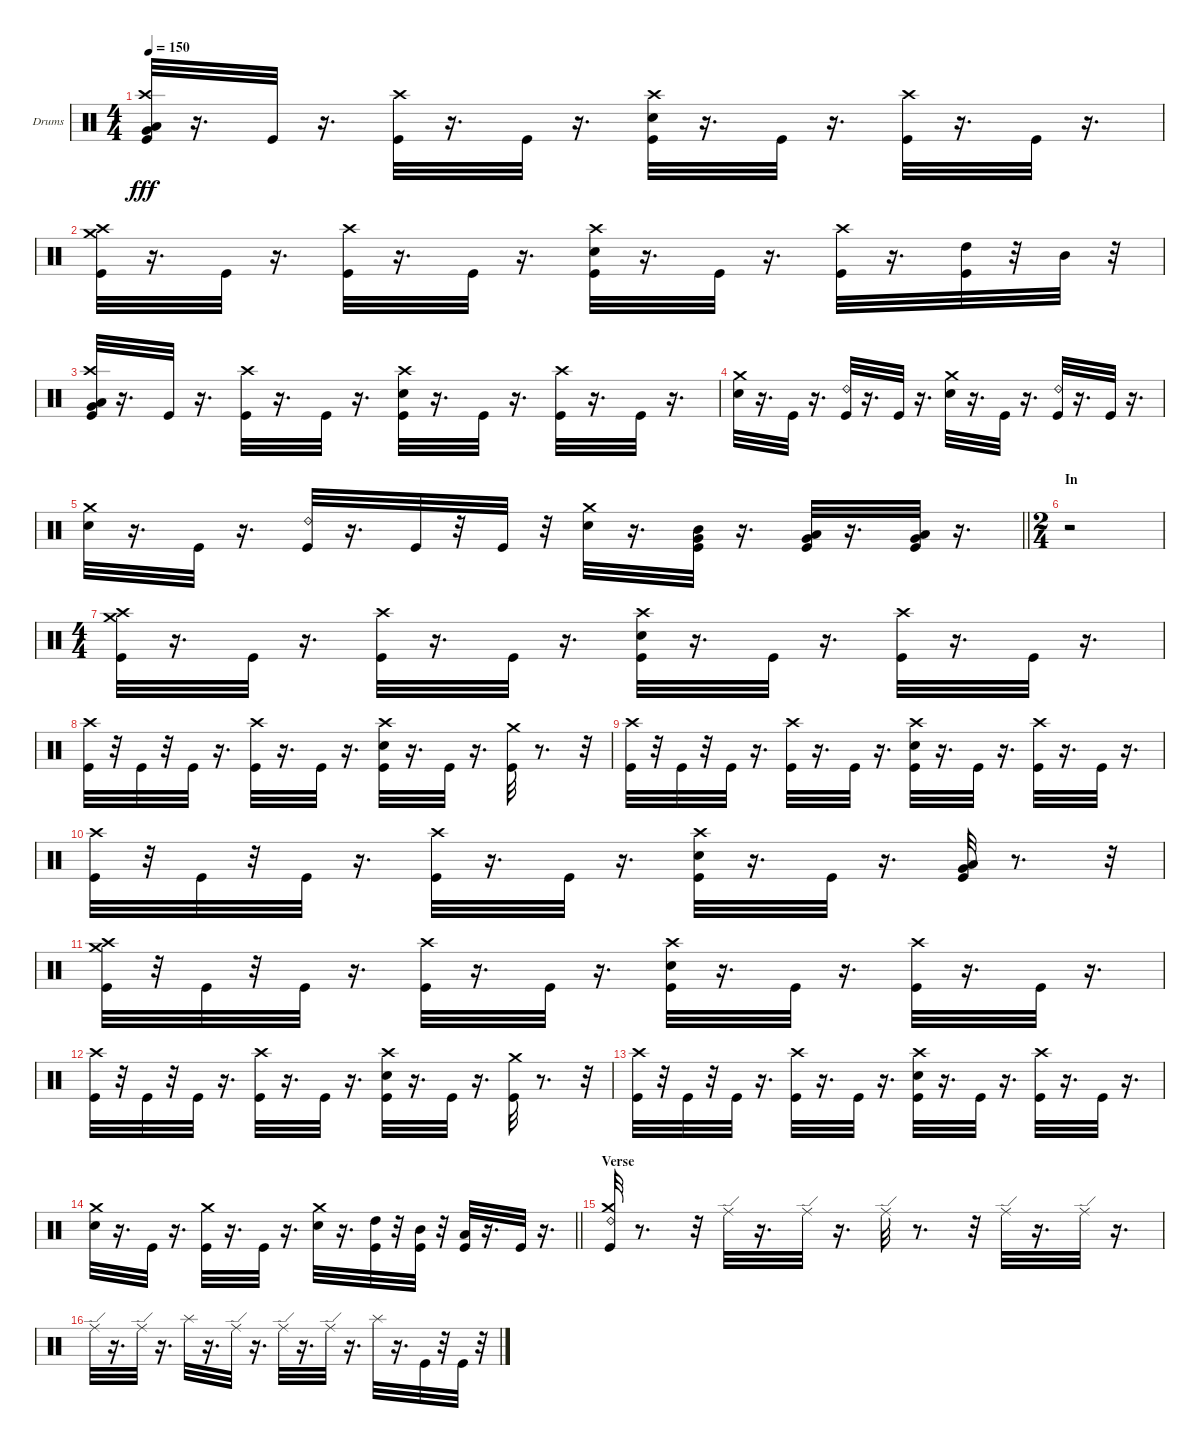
\bracketExtendMode groupsimilarinstruments
\firstSystemTrackNameOrientation horizontal
\otherSystemsTrackNameOrientation horizontal
\track ("Dave McClain" "Drums") {mute instrument percussion}
\staff {score}
\articulation defaults
\ts (4 4)
\tempo 150
\clef neutral
\ks c
("Low Tom (hit)" "Very Low Tom (hit)" "Crash high (hit)" "Kick (hit)").32{dy fff} r.16{d} "Kick (hit)".32 r.16{d} ("Crash high (hit)" "Kick (hit)").32 r.16{d} "Kick (hit)".32 r.16{d} ("Crash high (hit)" "Snare (hit) 2" "Kick (hit)").32 r.16{d} "Kick (hit)".32 r.16{d} ("Crash high (hit)" "Kick (hit)").32 r.16{d} "Kick (hit)".32 r.16{d} |
("Crash medium (hit)" "Crash high (hit)" "Kick (hit)").32 r.16{d} "Kick (hit)".32 r.16{d} ("Crash high (hit)" "Kick (hit)").32 r.16{d} "Kick (hit)".32 r.16{d} ("Crash high (hit)" "Snare (hit) 2" "Kick (hit)").32 r.16{d} "Kick (hit)".32 r.16{d} ("Crash high (hit)" "Kick (hit)").32 r.16{d} ("High Tom (hit)" "Kick (hit)").32 r.32 "Mid Tom (hit)".32 r.32 |
("Very Low Tom (hit)" "Low Tom (hit)" "Crash high (hit)" "Kick (hit)").32 r.16{d} "Kick (hit)".32 r.16{d} ("Crash high (hit)" "Kick (hit)").32 r.16{d} "Kick (hit)".32 r.16{d} ("Crash high (hit)" "Snare (hit) 2" "Kick (hit)").32 r.16{d} "Kick (hit)".32 r.16{d} ("Crash high (hit)" "Kick (hit)").32 r.16{d} "Kick (hit)".32 r.16{d} |
("Snare (hit) 2" "Crash medium (hit)").32 r.16{d} "Kick (hit)".32 r.16{d} ("Ride (bell) 2" "Kick (hit)").32 r.16{d} "Kick (hit)".32 r.16{d} ("Crash medium (hit)" "Snare (hit) 2").32 r.16{d} "Kick (hit)".32 r.16{d} ("Ride (bell) 2" "Kick (hit)").32 r.16{d} "Kick (hit)".32 r.16{d} |
\barLineRight lightlight
("Crash medium (hit)" "Snare (hit) 2").32 r.16{d} "Kick (hit)".32 r.16{d} ("Ride (bell) 2" "Kick (hit)").32 r.16{d} "Kick (hit)".32 r.32 "Kick (hit)".32 r.32 ("Crash medium (hit)" "Snare (hit) 2").32 r.16{d} ("Mid Tom (hit)" "Very Low Tom (hit)" "Kick (hit)").32 r.16{d} ("Low Tom (hit)" "Very Low Tom (hit)" "Kick (hit)").32 r.16{d} ("Low Tom (hit)" "Very Low Tom (hit)" "Kick (hit)").32 r.16{d} |
\ts (2 4)
\section ("" "In")
r.2 |
\ts (4 4)
("Crash high (hit)" "Crash medium (hit)" "Kick (hit)").32 r.16{d} "Kick (hit)".32 r.16{d} ("Crash high (hit)" "Kick (hit)").32 r.16{d} "Kick (hit)".32 r.16{d} ("Snare (hit) 2" "Crash high (hit)" "Kick (hit)").32 r.16{d} "Kick (hit)".32 r.16{d} ("Crash high (hit)" "Kick (hit)").32 r.16{d} "Kick (hit)".32 r.16{d} |
("Crash high (hit)" "Kick (hit)").32 r.32 "Kick (hit)".32 r.32 "Kick (hit)".32 r.16{d} ("Crash high (hit)" "Kick (hit)").32 r.16{d} "Kick (hit)".32 r.16{d} ("Snare (hit) 2" "Crash high (hit)" "Kick (hit)").32 r.16{d} "Kick (hit)".32 r.16{d} ("Crash medium (hit)" "Kick (hit)").32 r.8{d} r.32 |
("Crash high (hit)" "Kick (hit)").32 r.32 "Kick (hit)".32 r.32 "Kick (hit)".32 r.16{d} ("Kick (hit)" "Crash high (hit)").32 r.16{d} "Kick (hit)".32 r.16{d} ("Snare (hit) 2" "Kick (hit)" "Crash high (hit)").32 r.16{d} "Kick (hit)".32 r.16{d} ("Crash high (hit)" "Kick (hit)").32 r.16{d} "Kick (hit)".32 r.16{d} |
("Crash high (hit)" "Kick (hit)").32 r.32 "Kick (hit)".32 r.32 "Kick (hit)".32 r.16{d} ("Crash high (hit)" "Kick (hit)").32 r.16{d} "Kick (hit)".32 r.16{d} ("Snare (hit) 2" "Crash high (hit)" "Kick (hit)").32 r.16{d} "Kick (hit)".32 r.16{d} ("Very Low Tom (hit)" "Low Tom (hit)" "Kick (hit)").32 r.8{d} r.32 |
("Crash high (hit)" "Crash medium (hit)" "Kick (hit)").32 r.32 "Kick (hit)".32 r.32 "Kick (hit)".32 r.16{d} ("Crash high (hit)" "Kick (hit)").32 r.16{d} "Kick (hit)".32 r.16{d} ("Snare (hit) 2" "Crash high (hit)" "Kick (hit)").32 r.16{d} "Kick (hit)".32 r.16{d} ("Crash high (hit)" "Kick (hit)").32 r.16{d} "Kick (hit)".32 r.16{d} |
("Crash high (hit)" "Kick (hit)").32 r.32 "Kick (hit)".32 r.32 "Kick (hit)".32 r.16{d} ("Crash high (hit)" "Kick (hit)").32 r.16{d} "Kick (hit)".32 r.16{d} ("Snare (hit) 2" "Crash high (hit)" "Kick (hit)").32 r.16{d} "Kick (hit)".32 r.16{d} ("Crash medium (hit)" "Kick (hit)").32 r.8{d} r.32 |
("Crash high (hit)" "Kick (hit)").32 r.32 "Kick (hit)".32 r.32 "Kick (hit)".32 r.16{d} ("Kick (hit)" "Crash high (hit)").32 r.16{d} "Kick (hit)".32 r.16{d} ("Snare (hit) 2" "Kick (hit)" "Crash high (hit)").32 r.16{d} "Kick (hit)".32 r.16{d} ("Crash high (hit)" "Kick (hit)").32 r.16{d} "Kick (hit)".32 r.16{d} |
\barLineRight lightlight
("Snare (hit) 2" "Crash medium (hit)").32 r.16{d} "Kick (hit)".32 r.16{d} ("Kick (hit)" "Crash medium (hit)").32 r.16{d} "Kick (hit)".32 r.16{d} ("Snare (hit) 2" "Crash medium (hit)").32 r.16{d} ("High Tom (hit)" "Kick (hit)").32 r.32 ("Mid Tom (hit)" "Kick (hit)").32 r.32 ("Low Tom (hit)" "Kick (hit)").32 r.16{d} "Kick (hit)".32 r.16{d} |
\section ("" "Verse")
("Ride (bell) 2" "Crash medium (hit)" "Kick (hit)").32 r.8{d} r.32 "Ride (edge)".32 r.16{d} "Ride (edge)".32 r.16{d} "Ride (edge)".32 r.8{d} r.32 "Ride (edge)".32 r.16{d} "Ride (edge)".32 r.16{d} |
"Ride (edge)".32 r.16{d} "Ride (edge)".32 r.16{d} "Splash (hit)".32 r.16{d} "Ride (edge)".32 r.16{d} "Ride (edge)".32 r.16{d} "Ride (edge)".32 r.16{d} "Splash (hit)".32 r.16{d} "Kick (hit)".32 r.32 "Kick (hit)".32 r.32
